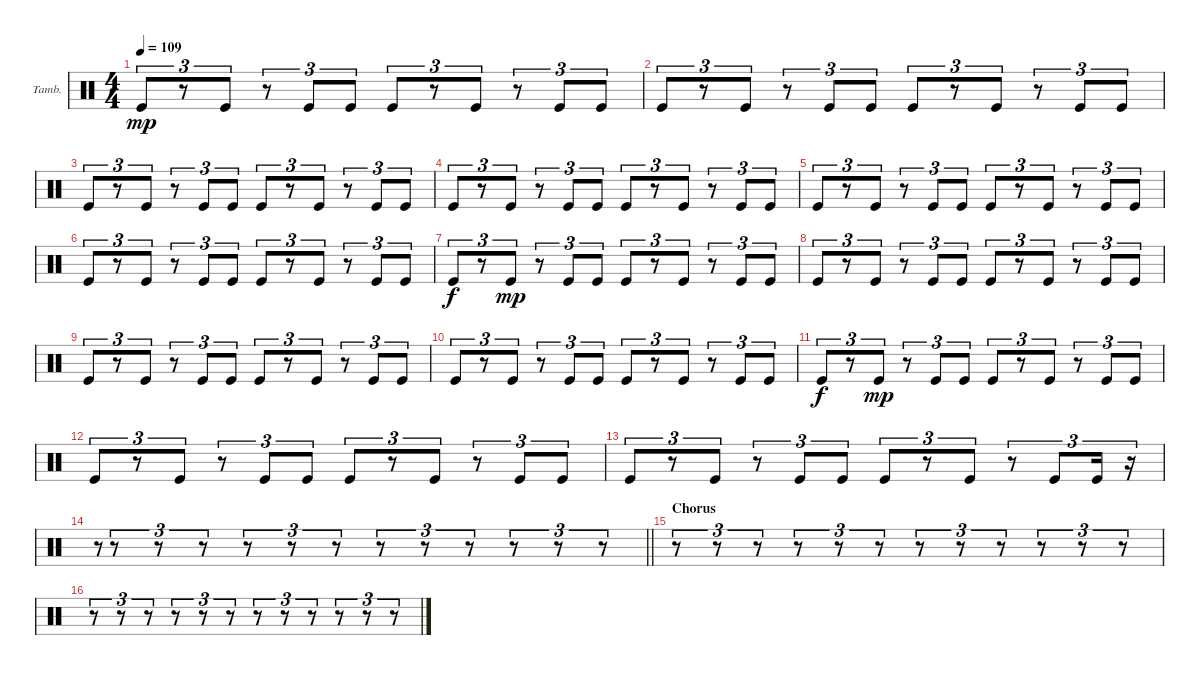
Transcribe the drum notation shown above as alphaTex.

\bracketExtendMode groupsimilarinstruments
\firstSystemTrackNameOrientation horizontal
\otherSystemsTrackNameOrientation horizontal
\track ("Tambourine" "Tamb.") {instrument percussion}
\staff {score}
\articulation defaults
\ts (4 4)
\tempo 109
\clef neutral
\ks c "Kick (hit)".8{tu (3 2) dy mp}
r.8{tu (3 2)} "Kick (hit)".8{tu (3 2)} r.8{tu (3 2)} "Kick (hit)".8{tu (3 2)} "Kick (hit)".8{tu (3 2)} "Kick (hit)".8{tu (3 2)} r.8{tu (3 2)} "Kick (hit)".8{tu (3 2)} r.8{tu (3 2)} "Kick (hit)".8{tu (3 2)} "Kick (hit)".8{tu (3 2)} |
"Kick (hit)".8{tu (3 2)} r.8{tu (3 2)} "Kick (hit)".8{tu (3 2)} r.8{tu (3 2)} "Kick (hit)".8{tu (3 2)} "Kick (hit)".8{tu (3 2)} "Kick (hit)".8{tu (3 2)} r.8{tu (3 2)} "Kick (hit)".8{tu (3 2)} r.8{tu (3 2)} "Kick (hit)".8{tu (3 2)} "Kick (hit)".8{tu (3 2)} |
"Kick (hit)".8{tu (3 2)} r.8{tu (3 2)} "Kick (hit)".8{tu (3 2)} r.8{tu (3 2)} "Kick (hit)".8{tu (3 2)} "Kick (hit)".8{tu (3 2)} "Kick (hit)".8{tu (3 2)} r.8{tu (3 2)} "Kick (hit)".8{tu (3 2)} r.8{tu (3 2)} "Kick (hit)".8{tu (3 2)} "Kick (hit)".8{tu (3 2)} |
"Kick (hit)".8{tu (3 2)} r.8{tu (3 2)} "Kick (hit)".8{tu (3 2)} r.8{tu (3 2)} "Kick (hit)".8{tu (3 2)} "Kick (hit)".8{tu (3 2)} "Kick (hit)".8{tu (3 2)} r.8{tu (3 2)} "Kick (hit)".8{tu (3 2)} r.8{tu (3 2)} "Kick (hit)".8{tu (3 2)} "Kick (hit)".8{tu (3 2)} |
"Kick (hit)".8{tu (3 2)} r.8{tu (3 2)} "Kick (hit)".8{tu (3 2)} r.8{tu (3 2)} "Kick (hit)".8{tu (3 2)} "Kick (hit)".8{tu (3 2)} "Kick (hit)".8{tu (3 2)} r.8{tu (3 2)} "Kick (hit)".8{tu (3 2)} r.8{tu (3 2)} "Kick (hit)".8{tu (3 2)} "Kick (hit)".8{tu (3 2)} |
"Kick (hit)".8{tu (3 2)} r.8{tu (3 2)} "Kick (hit)".8{tu (3 2)} r.8{tu (3 2)} "Kick (hit)".8{tu (3 2)} "Kick (hit)".8{tu (3 2)} "Kick (hit)".8{tu (3 2)} r.8{tu (3 2)} "Kick (hit)".8{tu (3 2)} r.8{tu (3 2)} "Kick (hit)".8{tu (3 2)} "Kick (hit)".8{tu (3 2)} |
"Kick (hit)".8{tu (3 2) dy f} r.8{tu (3 2)} "Kick (hit)".8{tu (3 2) dy mp} r.8{tu (3 2)} "Kick (hit)".8{tu (3 2)} "Kick (hit)".8{tu (3 2)} "Kick (hit)".8{tu (3 2)} r.8{tu (3 2)} "Kick (hit)".8{tu (3 2)} r.8{tu (3 2)} "Kick (hit)".8{tu (3 2)} "Kick (hit)".8{tu (3 2)} |
"Kick (hit)".8{tu (3 2)} r.8{tu (3 2)} "Kick (hit)".8{tu (3 2)} r.8{tu (3 2)} "Kick (hit)".8{tu (3 2)} "Kick (hit)".8{tu (3 2)} "Kick (hit)".8{tu (3 2)} r.8{tu (3 2)} "Kick (hit)".8{tu (3 2)} r.8{tu (3 2)} "Kick (hit)".8{tu (3 2)} "Kick (hit)".8{tu (3 2)} |
"Kick (hit)".8{tu (3 2)} r.8{tu (3 2)} "Kick (hit)".8{tu (3 2)} r.8{tu (3 2)} "Kick (hit)".8{tu (3 2)} "Kick (hit)".8{tu (3 2)} "Kick (hit)".8{tu (3 2)} r.8{tu (3 2)} "Kick (hit)".8{tu (3 2)} r.8{tu (3 2)} "Kick (hit)".8{tu (3 2)} "Kick (hit)".8{tu (3 2)} |
"Kick (hit)".8{tu (3 2)} r.8{tu (3 2)} "Kick (hit)".8{tu (3 2)} r.8{tu (3 2)} "Kick (hit)".8{tu (3 2)} "Kick (hit)".8{tu (3 2)} "Kick (hit)".8{tu (3 2)} r.8{tu (3 2)} "Kick (hit)".8{tu (3 2)} r.8{tu (3 2)} "Kick (hit)".8{tu (3 2)} "Kick (hit)".8{tu (3 2)} |
"Kick (hit)".8{tu (3 2) dy f} r.8{tu (3 2)} "Kick (hit)".8{tu (3 2) dy mp} r.8{tu (3 2)} "Kick (hit)".8{tu (3 2)} "Kick (hit)".8{tu (3 2)} "Kick (hit)".8{tu (3 2)} r.8{tu (3 2)} "Kick (hit)".8{tu (3 2)} r.8{tu (3 2)} "Kick (hit)".8{tu (3 2)} "Kick (hit)".8{tu (3 2)} |
"Kick (hit)".8{tu (3 2)} r.8{tu (3 2)} "Kick (hit)".8{tu (3 2)} r.8{tu (3 2)} "Kick (hit)".8{tu (3 2)} "Kick (hit)".8{tu (3 2)} "Kick (hit)".8{tu (3 2)} r.8{tu (3 2)} "Kick (hit)".8{tu (3 2)} r.8{tu (3 2)} "Kick (hit)".8{tu (3 2)} "Kick (hit)".8{tu (3 2)} |
"Kick (hit)".8{tu (3 2)} r.8{tu (3 2)} "Kick (hit)".8{tu (3 2)} r.8{tu (3 2)} "Kick (hit)".8{tu (3 2)} "Kick (hit)".8{tu (3 2)} "Kick (hit)".8{tu (3 2)} r.8{tu (3 2)} "Kick (hit)".8{tu (3 2)} r.8{tu (3 2)} "Kick (hit)".8{tu (3 2)} "Kick (hit)".16{tu (3 2)} r.16{tu (3 2)} |
\barLineRight lightlight
r.8{gr onbeat} r.8{tu (3 2)} r.8{tu (3 2)} r.8{tu (3 2)} r.8{tu (3 2)} r.8{tu (3 2)} r.8{tu (3 2)} r.8{tu (3 2)} r.8{tu (3 2)} r.8{tu (3 2)} r.8{tu (3 2)} r.8{tu (3 2)} r.8{tu (3 2)} |
\section ("" "Chorus")
r.8{tu (3 2)} r.8{tu (3 2)} r.8{tu (3 2)} r.8{tu (3 2)} r.8{tu (3 2)} r.8{tu (3 2)} r.8{tu (3 2)} r.8{tu (3 2)} r.8{tu (3 2)} r.8{tu (3 2)} r.8{tu (3 2)} r.8{tu (3 2)} |
r.8{tu (3 2)} r.8{tu (3 2)} r.8{tu (3 2)} r.8{tu (3 2)} r.8{tu (3 2)} r.8{tu (3 2)} r.8{tu (3 2)} r.8{tu (3 2)} r.8{tu (3 2)} r.8{tu (3 2)} r.8{tu (3 2)} r.8{tu (3 2)}
